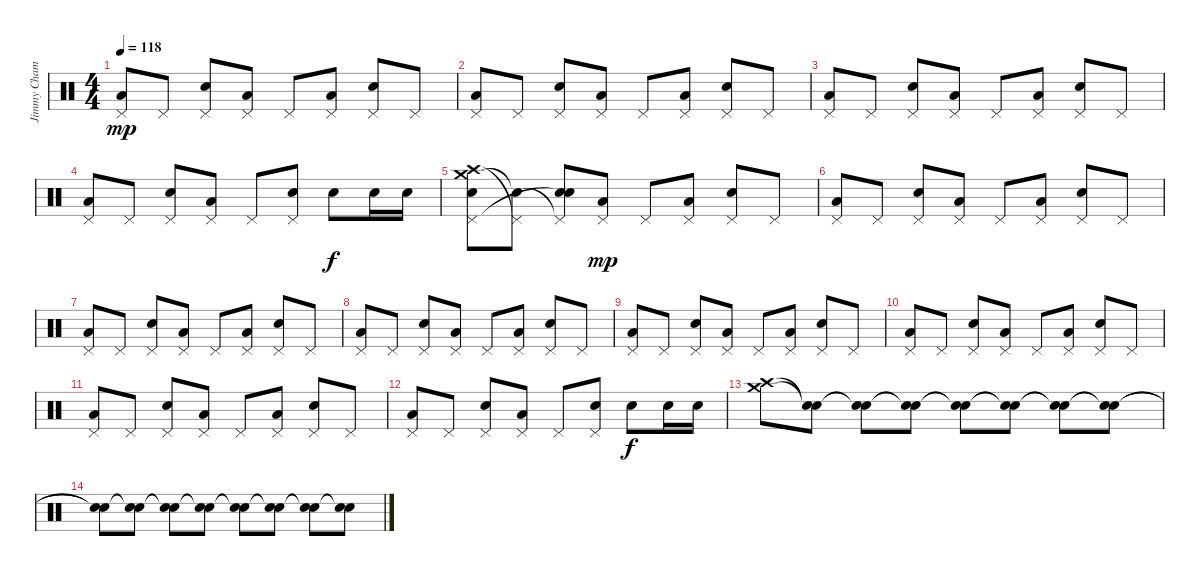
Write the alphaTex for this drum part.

\track ("Jimmy Chamberlin" "Jimmy Cham") {instrument percussion}
\staff {score}
\articulation defaults
\ts (4 4)
\tempo 118
\clef neutral
\ks c
("Low Floor Tom (hit)" "Pedal Hi-Hat (hit)").8{dy mp} "Pedal Hi-Hat (hit)".8 ("Snare (hit) 2" "Pedal Hi-Hat (hit)").8 ("Low Floor Tom (hit)" "Pedal Hi-Hat (hit)").8 "Pedal Hi-Hat (hit)".8 ("Low Floor Tom (hit)" "Pedal Hi-Hat (hit)").8 ("Snare (hit) 2" "Pedal Hi-Hat (hit)").8 "Pedal Hi-Hat (hit)".8 |
("Low Floor Tom (hit)" "Pedal Hi-Hat (hit)").8 "Pedal Hi-Hat (hit)".8 ("Snare (hit) 2" "Pedal Hi-Hat (hit)").8 ("Low Floor Tom (hit)" "Pedal Hi-Hat (hit)").8 "Pedal Hi-Hat (hit)".8 ("Low Floor Tom (hit)" "Pedal Hi-Hat (hit)").8 ("Snare (hit) 2" "Pedal Hi-Hat (hit)").8 "Pedal Hi-Hat (hit)".8 |
("Low Floor Tom (hit)" "Pedal Hi-Hat (hit)").8 "Pedal Hi-Hat (hit)".8 ("Snare (hit) 2" "Pedal Hi-Hat (hit)").8 ("Low Floor Tom (hit)" "Pedal Hi-Hat (hit)").8 "Pedal Hi-Hat (hit)".8 ("Low Floor Tom (hit)" "Pedal Hi-Hat (hit)").8 ("Snare (hit) 2" "Pedal Hi-Hat (hit)").8 "Pedal Hi-Hat (hit)".8 |
("Low Floor Tom (hit)" "Pedal Hi-Hat (hit)").8 "Pedal Hi-Hat (hit)".8 ("Snare (hit) 2" "Pedal Hi-Hat (hit)").8 ("Low Floor Tom (hit)" "Pedal Hi-Hat (hit)").8 "Pedal Hi-Hat (hit)".8 ("Snare (hit) 2" "Pedal Hi-Hat (hit)").8 "Snare (hit) 2".8{dy f} "Snare (hit) 2".16 "Snare (hit) 2".16 |
("Crash high (hit)" "Crash medium (hit)" "Pedal Hi-Hat (hit)" "Snare (hit)").8 ("Pedal Hi-Hat (hit)"{t} "Snare (hit)"{t}).8 ("Snare (hit) 2" "Pedal Hi-Hat (hit)"{t} "Snare (hit)"{t}).8 ("Low Floor Tom (hit)" "Pedal Hi-Hat (hit)").8{dy mp} "Pedal Hi-Hat (hit)".8 ("Low Floor Tom (hit)" "Pedal Hi-Hat (hit)").8 ("Snare (hit) 2" "Pedal Hi-Hat (hit)").8 "Pedal Hi-Hat (hit)".8 |
("Low Floor Tom (hit)" "Pedal Hi-Hat (hit)").8 "Pedal Hi-Hat (hit)".8 ("Snare (hit) 2" "Pedal Hi-Hat (hit)").8 ("Low Floor Tom (hit)" "Pedal Hi-Hat (hit)").8 "Pedal Hi-Hat (hit)".8 ("Low Floor Tom (hit)" "Pedal Hi-Hat (hit)").8 ("Snare (hit) 2" "Pedal Hi-Hat (hit)").8 "Pedal Hi-Hat (hit)".8 |
("Low Floor Tom (hit)" "Pedal Hi-Hat (hit)").8 "Pedal Hi-Hat (hit)".8 ("Snare (hit) 2" "Pedal Hi-Hat (hit)").8 ("Low Floor Tom (hit)" "Pedal Hi-Hat (hit)").8 "Pedal Hi-Hat (hit)".8 ("Low Floor Tom (hit)" "Pedal Hi-Hat (hit)").8 ("Snare (hit) 2" "Pedal Hi-Hat (hit)").8 "Pedal Hi-Hat (hit)".8 |
("Low Floor Tom (hit)" "Pedal Hi-Hat (hit)").8 "Pedal Hi-Hat (hit)".8 ("Snare (hit) 2" "Pedal Hi-Hat (hit)").8 ("Low Floor Tom (hit)" "Pedal Hi-Hat (hit)").8 "Pedal Hi-Hat (hit)".8 ("Low Floor Tom (hit)" "Pedal Hi-Hat (hit)").8 ("Snare (hit) 2" "Pedal Hi-Hat (hit)").8 "Pedal Hi-Hat (hit)".8 |
("Low Floor Tom (hit)" "Pedal Hi-Hat (hit)").8 "Pedal Hi-Hat (hit)".8 ("Snare (hit) 2" "Pedal Hi-Hat (hit)").8 ("Low Floor Tom (hit)" "Pedal Hi-Hat (hit)").8 "Pedal Hi-Hat (hit)".8 ("Low Floor Tom (hit)" "Pedal Hi-Hat (hit)").8 ("Snare (hit) 2" "Pedal Hi-Hat (hit)").8 "Pedal Hi-Hat (hit)".8 |
("Low Floor Tom (hit)" "Pedal Hi-Hat (hit)").8 "Pedal Hi-Hat (hit)".8 ("Snare (hit) 2" "Pedal Hi-Hat (hit)").8 ("Low Floor Tom (hit)" "Pedal Hi-Hat (hit)").8 "Pedal Hi-Hat (hit)".8 ("Low Floor Tom (hit)" "Pedal Hi-Hat (hit)").8 ("Snare (hit) 2" "Pedal Hi-Hat (hit)").8 "Pedal Hi-Hat (hit)".8 |
("Low Floor Tom (hit)" "Pedal Hi-Hat (hit)").8 "Pedal Hi-Hat (hit)".8 ("Snare (hit) 2" "Pedal Hi-Hat (hit)").8 ("Low Floor Tom (hit)" "Pedal Hi-Hat (hit)").8 "Pedal Hi-Hat (hit)".8 ("Low Floor Tom (hit)" "Pedal Hi-Hat (hit)").8 ("Snare (hit) 2" "Pedal Hi-Hat (hit)").8 "Pedal Hi-Hat (hit)".8 |
("Low Floor Tom (hit)" "Pedal Hi-Hat (hit)").8 "Pedal Hi-Hat (hit)".8 ("Snare (hit) 2" "Pedal Hi-Hat (hit)").8 ("Low Floor Tom (hit)" "Pedal Hi-Hat (hit)").8 "Pedal Hi-Hat (hit)".8 ("Snare (hit) 2" "Pedal Hi-Hat (hit)").8 "Snare (hit) 2".8{dy f} "Snare (hit) 2".16 "Snare (hit) 2".16 |
("Crash medium (hit)" "Crash high (hit)").8 ("Snare (hit)"{t} "Snare (hit)"{t}).8 ("Snare (hit)"{t} "Snare (hit)"{t}).8 ("Snare (hit)"{t} "Snare (hit)"{t}).8 ("Snare (hit)"{t} "Snare (hit)"{t}).8 ("Snare (hit)"{t} "Snare (hit)"{t}).8 ("Snare (hit)"{t} "Snare (hit)"{t}).8 ("Snare (hit)"{t} "Snare (hit)"{t}).8 |
("Snare (hit)"{t} "Snare (hit)"{t}).8 ("Snare (hit)"{t} "Snare (hit)"{t}).8 ("Snare (hit)"{t} "Snare (hit)"{t}).8 ("Snare (hit)"{t} "Snare (hit)"{t}).8 ("Snare (hit)"{t} "Snare (hit)"{t}).8 ("Snare (hit)"{t} "Snare (hit)"{t}).8 ("Snare (hit)"{t} "Snare (hit)"{t}).8 ("Snare (hit)"{t} "Snare (hit)"{t}).8
